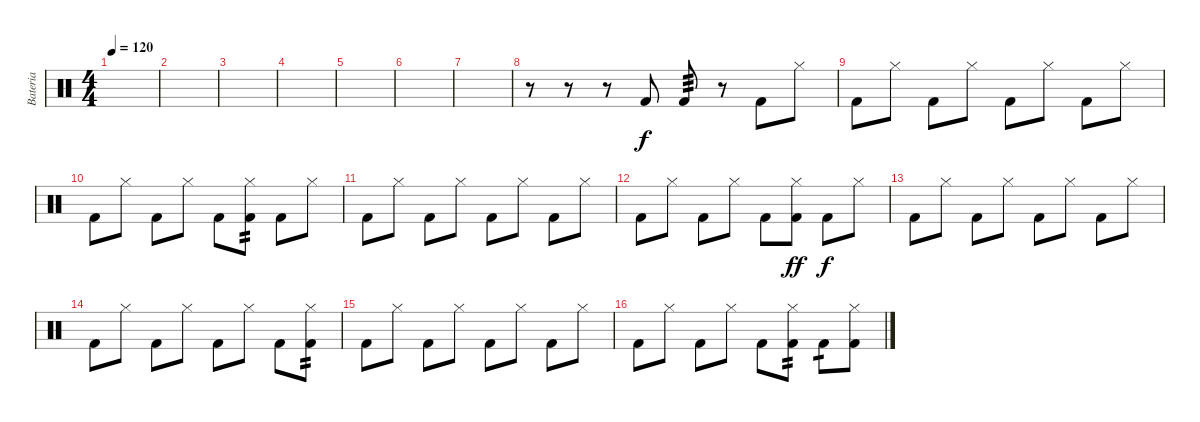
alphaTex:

\track ("Bateria" "Bateria") {instrument percussion}
\staff {score}
\articulation defaults
\ts (4 4)
\tempo 120
\clef neutral
\ks c
|
|
|
|
|
|
|
r.8 r.8 r.8 "Kick (hit) 2".8 "Kick (hit) 2".8{tp 3} r.8 "Kick (hit) 2".8 "Hi-Hat (closed)".8 |
"Kick (hit) 2".8 "Hi-Hat (closed)".8 "Kick (hit) 2".8 "Hi-Hat (closed)".8 "Kick (hit) 2".8 "Hi-Hat (closed)".8 "Kick (hit) 2".8 "Hi-Hat (closed)".8 |
"Kick (hit) 2".8 "Hi-Hat (closed)".8 "Kick (hit) 2".8 "Hi-Hat (closed)".8 "Kick (hit) 2".8 ("Hi-Hat (closed)" "Kick (hit) 2").8{tp 2} "Kick (hit) 2".8 "Hi-Hat (closed)".8 |
"Kick (hit) 2".8 "Hi-Hat (closed)".8 "Kick (hit) 2".8 "Hi-Hat (closed)".8 "Kick (hit) 2".8 "Hi-Hat (closed)".8 "Kick (hit) 2".8 "Hi-Hat (closed)".8 |
"Kick (hit) 2".8 "Hi-Hat (closed)".8 "Kick (hit) 2".8 "Hi-Hat (closed)".8 "Kick (hit) 2".8 ("Hi-Hat (closed)" "Kick (hit) 2").8{dy ff} "Kick (hit) 2".8{dy f} "Hi-Hat (closed)".8 |
"Kick (hit) 2".8 "Hi-Hat (closed)".8 "Kick (hit) 2".8 "Hi-Hat (closed)".8 "Kick (hit) 2".8 "Hi-Hat (closed)".8 "Kick (hit) 2".8 "Hi-Hat (closed)".8 |
"Kick (hit) 2".8 "Hi-Hat (closed)".8 "Kick (hit) 2".8 "Hi-Hat (closed)".8 "Kick (hit) 2".8 "Hi-Hat (closed)".8 "Kick (hit) 2".8 ("Hi-Hat (closed)" "Kick (hit) 2").8{tp 2} |
"Kick (hit) 2".8 "Hi-Hat (closed)".8 "Kick (hit) 2".8 "Hi-Hat (closed)".8 "Kick (hit) 2".8 "Hi-Hat (closed)".8 "Kick (hit) 2".8 "Hi-Hat (closed)".8 |
"Kick (hit) 2".8 "Hi-Hat (closed)".8 "Kick (hit) 2".8 "Hi-Hat (closed)".8 "Kick (hit) 2".8 ("Hi-Hat (closed)" "Kick (hit) 2").8{tp 2} "Kick (hit) 2".8{tp 1} ("Hi-Hat (closed)" "Kick (hit) 2").8
